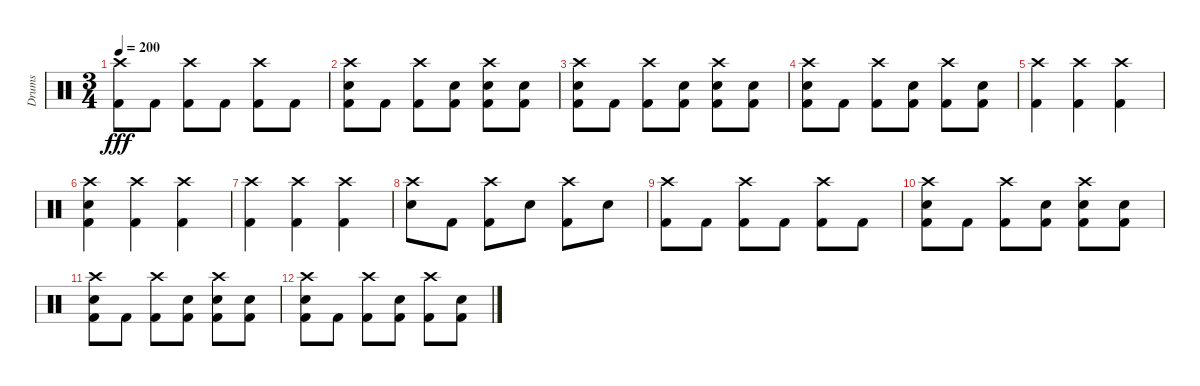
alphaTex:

\track ("Drums" "Drums") {instrument percussion}
\staff {score}
\articulation defaults
\ts (3 4)
\tempo 200
\clef neutral
\ks c
("Crash high (hit)" "Kick (hit) 2").8{dy fff} "Kick (hit) 2".8 ("Crash high (hit)" "Kick (hit) 2").8 "Kick (hit) 2".8 ("Crash high (hit)" "Kick (hit) 2").8 "Kick (hit) 2".8 |
("Crash high (hit)" "Electric Snare (hit)" "Kick (hit) 2").8 "Kick (hit) 2".8 ("Crash high (hit)" "Kick (hit) 2").8 ("Electric Snare (hit)" "Kick (hit) 2").8 ("Crash high (hit)" "Electric Snare (hit)" "Kick (hit) 2").8 ("Electric Snare (hit)" "Kick (hit) 2").8 |
("Crash high (hit)" "Electric Snare (hit)" "Kick (hit) 2").8 "Kick (hit) 2".8 ("Crash high (hit)" "Kick (hit) 2").8 ("Electric Snare (hit)" "Kick (hit) 2").8 ("Crash high (hit)" "Electric Snare (hit)" "Kick (hit) 2").8 ("Electric Snare (hit)" "Kick (hit) 2").8 |
("Crash high (hit)" "Electric Snare (hit)" "Kick (hit) 2").8 "Kick (hit) 2".8 ("Crash high (hit)" "Kick (hit) 2").8 ("Electric Snare (hit)" "Kick (hit) 2").8 ("Crash high (hit)" "Kick (hit) 2").8 ("Electric Snare (hit)" "Kick (hit) 2").8 |
("Crash high (hit)" "Kick (hit) 2").4 ("Crash high (hit)" "Kick (hit) 2").4 ("Crash high (hit)" "Kick (hit) 2").4 |
("Crash high (hit)" "Electric Snare (hit)" "Kick (hit) 2").4 ("Crash high (hit)" "Kick (hit) 2").4 ("Crash high (hit)" "Kick (hit) 2").4 |
("Crash high (hit)" "Kick (hit) 2").4 ("Crash high (hit)" "Kick (hit) 2").4 ("Crash high (hit)" "Kick (hit) 2").4 |
("Crash high (hit)" "Electric Snare (hit)").8 "Kick (hit) 2".8 ("Crash high (hit)" "Kick (hit) 2").8 "Electric Snare (hit)".8 ("Crash high (hit)" "Kick (hit) 2").8 "Electric Snare (hit)".8 |
("Crash high (hit)" "Kick (hit) 2").8 "Kick (hit) 2".8 ("Crash high (hit)" "Kick (hit) 2").8 "Kick (hit) 2".8 ("Crash high (hit)" "Kick (hit) 2").8 "Kick (hit) 2".8 |
("Crash high (hit)" "Electric Snare (hit)" "Kick (hit) 2").8 "Kick (hit) 2".8 ("Crash high (hit)" "Kick (hit) 2").8 ("Electric Snare (hit)" "Kick (hit) 2").8 ("Crash high (hit)" "Electric Snare (hit)" "Kick (hit) 2").8 ("Electric Snare (hit)" "Kick (hit) 2").8 |
("Crash high (hit)" "Electric Snare (hit)" "Kick (hit) 2").8 "Kick (hit) 2".8 ("Crash high (hit)" "Kick (hit) 2").8 ("Electric Snare (hit)" "Kick (hit) 2").8 ("Crash high (hit)" "Electric Snare (hit)" "Kick (hit) 2").8 ("Electric Snare (hit)" "Kick (hit) 2").8 |
("Crash high (hit)" "Electric Snare (hit)" "Kick (hit) 2").8 "Kick (hit) 2".8 ("Crash high (hit)" "Kick (hit) 2").8 ("Electric Snare (hit)" "Kick (hit) 2").8 ("Crash high (hit)" "Kick (hit) 2").8 ("Electric Snare (hit)" "Kick (hit) 2").8
